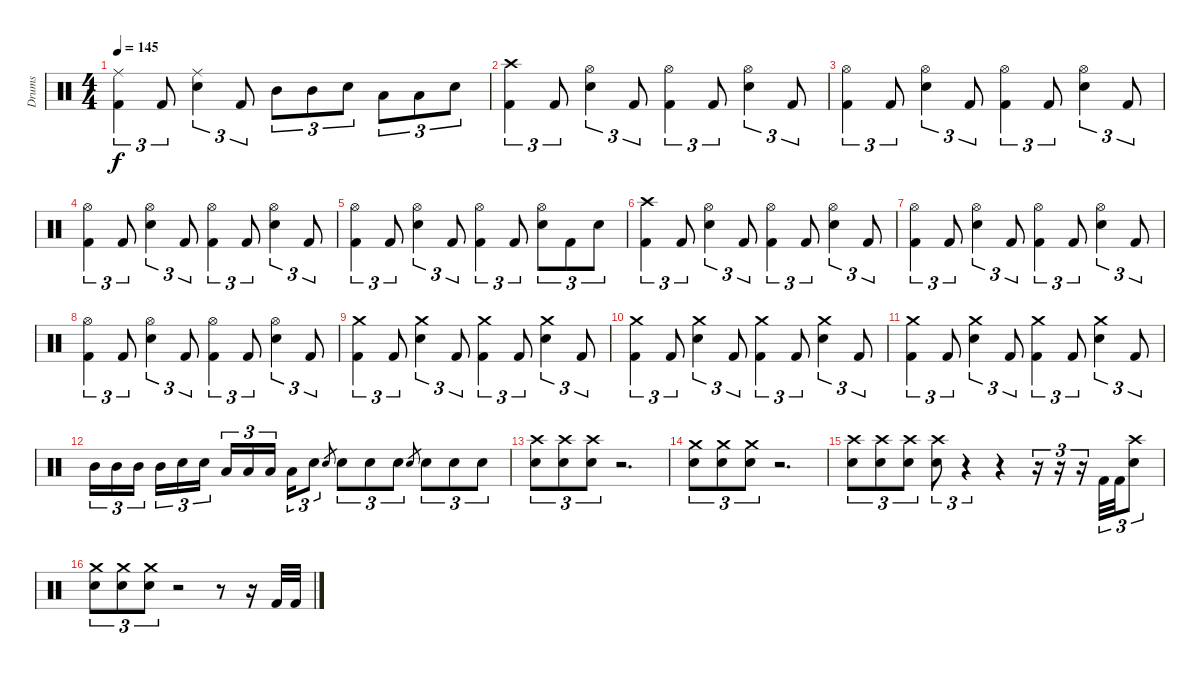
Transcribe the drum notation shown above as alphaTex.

\track ("Drums" "Drums") {instrument percussion}
\staff {score}
\articulation defaults
\ts (4 4)
\tempo 145
\clef neutral
\ks c
("Ride (middle)" "Kick (hit) 2").4{tu (3 2) dy f} "Kick (hit) 2".8{tu (3 2)} ("Ride (middle)" "Electric Snare (hit)").4{tu (3 2)} "Kick (hit) 2".8{tu (3 2)} "Mid Tom (hit)".8{tu (3 2)} "Mid Tom (hit)".8{tu (3 2)} "Electric Snare (hit)".8{tu (3 2)} "Low Tom (hit)".8{tu (3 2)} "Low Tom (hit)".8{tu (3 2)} "Electric Snare (hit)".8{tu (3 2)} |
("Crash high (hit)" "Kick (hit) 2").4{tu (3 2)} "Kick (hit) 2".8{tu (3 2)} ("Hi-Hat (open)" "Electric Snare (hit)").4{tu (3 2)} "Kick (hit) 2".8{tu (3 2)} ("Hi-Hat (open)" "Kick (hit) 2").4{tu (3 2)} "Kick (hit) 2".8{tu (3 2)} ("Hi-Hat (open)" "Electric Snare (hit)").4{tu (3 2)} "Kick (hit) 2".8{tu (3 2)} |
("Hi-Hat (open)" "Kick (hit) 2").4{tu (3 2)} "Kick (hit) 2".8{tu (3 2)} ("Hi-Hat (open)" "Electric Snare (hit)").4{tu (3 2)} "Kick (hit) 2".8{tu (3 2)} ("Hi-Hat (open)" "Kick (hit) 2").4{tu (3 2)} "Kick (hit) 2".8{tu (3 2)} ("Hi-Hat (open)" "Electric Snare (hit)").4{tu (3 2)} "Kick (hit) 2".8{tu (3 2)} |
("Hi-Hat (open)" "Kick (hit) 2").4{tu (3 2)} "Kick (hit) 2".8{tu (3 2)} ("Hi-Hat (open)" "Electric Snare (hit)").4{tu (3 2)} "Kick (hit) 2".8{tu (3 2)} ("Hi-Hat (open)" "Kick (hit) 2").4{tu (3 2)} "Kick (hit) 2".8{tu (3 2)} ("Hi-Hat (open)" "Electric Snare (hit)").4{tu (3 2)} "Kick (hit) 2".8{tu (3 2)} |
("Hi-Hat (open)" "Kick (hit) 2").4{tu (3 2)} "Kick (hit) 2".8{tu (3 2)} ("Hi-Hat (open)" "Electric Snare (hit)").4{tu (3 2)} "Kick (hit) 2".8{tu (3 2)} ("Hi-Hat (open)" "Kick (hit) 2").4{tu (3 2)} "Kick (hit) 2".8{tu (3 2)} ("Hi-Hat (open)" "Electric Snare (hit)").8{tu (3 2)} "Kick (hit) 2".8{tu (3 2)} "Electric Snare (hit)".8{tu (3 2)} |
("Crash high (hit)" "Kick (hit) 2").4{tu (3 2)} "Kick (hit) 2".8{tu (3 2)} ("Hi-Hat (open)" "Electric Snare (hit)").4{tu (3 2)} "Kick (hit) 2".8{tu (3 2)} ("Hi-Hat (open)" "Kick (hit) 2").4{tu (3 2)} "Kick (hit) 2".8{tu (3 2)} ("Hi-Hat (open)" "Electric Snare (hit)").4{tu (3 2)} "Kick (hit) 2".8{tu (3 2)} |
("Hi-Hat (open)" "Kick (hit) 2").4{tu (3 2)} "Kick (hit) 2".8{tu (3 2)} ("Hi-Hat (open)" "Electric Snare (hit)").4{tu (3 2)} "Kick (hit) 2".8{tu (3 2)} ("Hi-Hat (open)" "Kick (hit) 2").4{tu (3 2)} "Kick (hit) 2".8{tu (3 2)} ("Hi-Hat (open)" "Electric Snare (hit)").4{tu (3 2)} "Kick (hit) 2".8{tu (3 2)} |
("Hi-Hat (open)" "Kick (hit) 2").4{tu (3 2)} "Kick (hit) 2".8{tu (3 2)} ("Hi-Hat (open)" "Electric Snare (hit)").4{tu (3 2)} "Kick (hit) 2".8{tu (3 2)} ("Hi-Hat (open)" "Kick (hit) 2").4{tu (3 2)} "Kick (hit) 2".8{tu (3 2)} ("Hi-Hat (open)" "Electric Snare (hit)").4{tu (3 2)} "Kick (hit) 2".8{tu (3 2)} |
("Crash medium (hit)" "Kick (hit) 2").4{tu (3 2)} "Kick (hit) 2".8{tu (3 2)} ("Crash medium (hit)" "Electric Snare (hit)").4{tu (3 2)} "Kick (hit) 2".8{tu (3 2)} ("Crash medium (hit)" "Kick (hit) 2").4{tu (3 2)} "Kick (hit) 2".8{tu (3 2)} ("Crash medium (hit)" "Electric Snare (hit)").4{tu (3 2)} "Kick (hit) 2".8{tu (3 2)} |
("Crash medium (hit)" "Kick (hit) 2").4{tu (3 2)} "Kick (hit) 2".8{tu (3 2)} ("Crash medium (hit)" "Electric Snare (hit)").4{tu (3 2)} "Kick (hit) 2".8{tu (3 2)} ("Crash medium (hit)" "Kick (hit) 2").4{tu (3 2)} "Kick (hit) 2".8{tu (3 2)} ("Crash medium (hit)" "Electric Snare (hit)").4{tu (3 2)} "Kick (hit) 2".8{tu (3 2)} |
("Crash medium (hit)" "Kick (hit) 2").4{tu (3 2)} "Kick (hit) 2".8{tu (3 2)} ("Crash medium (hit)" "Electric Snare (hit)").4{tu (3 2)} "Kick (hit) 2".8{tu (3 2)} ("Crash medium (hit)" "Kick (hit) 2").4{tu (3 2)} "Kick (hit) 2".8{tu (3 2)} ("Crash medium (hit)" "Electric Snare (hit)").4{tu (3 2)} "Kick (hit) 2".8{tu (3 2)} |
"Mid Tom (hit)".16{tu (3 2)} "Mid Tom (hit)".16{tu (3 2)} "Mid Tom (hit)".16{tu (3 2)} "Mid Tom (hit)".16{tu (3 2)} "Electric Snare (hit)".16{tu (3 2)} "Electric Snare (hit)".16{tu (3 2)} "Low Tom (hit)".16{tu (3 2)} "Low Tom (hit)".16{tu (3 2)} "Low Tom (hit)".16{tu (3 2)} "Low Tom (hit)".16{tu (3 2)} "Electric Snare (hit)".8{tu (3 2)} "Electric Snare (hit)".8{gr} "Electric Snare (hit)".8{tu (3 2)} "Electric Snare (hit)".8{tu (3 2)} "Electric Snare (hit)".8{tu (3 2)} "Electric Snare (hit)".8{gr} "Electric Snare (hit)".8{tu (3 2)} "Electric Snare (hit)".8{tu (3 2)} "Electric Snare (hit)".8{tu (3 2)} |
("Crash high (hit)" "Electric Snare (hit)").8{tu (3 2)} ("Crash high (hit)" "Electric Snare (hit)").8{tu (3 2)} ("Crash high (hit)" "Electric Snare (hit)").8{tu (3 2)} r.2{d} |
("Crash medium (hit)" "Electric Snare (hit)").8{tu (3 2)} ("Crash medium (hit)" "Electric Snare (hit)").8{tu (3 2)} ("Crash medium (hit)" "Electric Snare (hit)").8{tu (3 2)} r.2{d} |
("Crash high (hit)" "Electric Snare (hit)").8{tu (3 2)} ("Crash high (hit)" "Electric Snare (hit)").8{tu (3 2)} ("Crash high (hit)" "Electric Snare (hit)").8{tu (3 2)} ("Crash high (hit)" "Electric Snare (hit)").8{tu (3 2)} r.4{tu (3 2)} r.4 r.16{tu (3 2)} r.16{tu (3 2)} r.16{tu (3 2)} "Kick (hit) 2".32{tu (3 2)} "Kick (hit) 2".32{tu (3 2)} ("Crash high (hit)" "Electric Snare (hit)").8{tu (3 2)} |
("Crash medium (hit)" "Electric Snare (hit)").8{tu (3 2)} ("Crash medium (hit)" "Electric Snare (hit)").8{tu (3 2)} ("Crash medium (hit)" "Electric Snare (hit)").8{tu (3 2)} r.2 r.8 r.16 "Kick (hit) 2".32 "Kick (hit) 2".32
